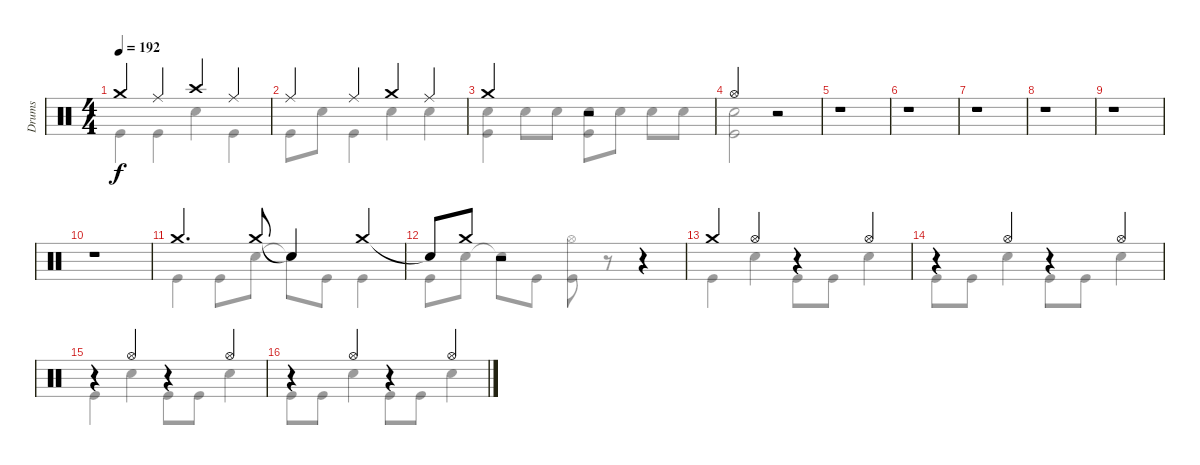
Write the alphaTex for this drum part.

\track ("Drums" "Drums") {instrument percussion}
\staff {score}
\articulation defaults
\voice
\ts (4 4)
\tempo 192
\clef neutral
\ks c "Crash medium (hit)".4{dy f} "Ride (middle)".4 "Crash high (hit)".4 "Ride (middle)".4
|
"Ride (middle)".4 "Ride (middle)".4 "Crash medium (hit)".4 "Ride (middle)".4 |
"Crash medium (hit)".2 r.2 |
"Hi-Hat (open)".2 r.2 |
r.1 |
r.1 |
r.1 |
r.1 |
r.1 |
r.1 |
"Crash medium (hit)".4{d} "Crash medium (hit)".8 "Snare (hit)"{t}.4 "Crash medium (hit)".4 |
"Snare (hit)"{t}.8 "Crash medium (hit)".8 r.2 r.4 |
"Crash medium (hit)".4 "Hi-Hat (open)".4 r.4 "Hi-Hat (open)".4 |
r.4 "Hi-Hat (open)".4 r.4 "Hi-Hat (open)".4 |
r.4 "Hi-Hat (open)".4 r.4 "Hi-Hat (open)".4 |
r.4 "Hi-Hat (open)".4 r.4 "Hi-Hat (open)".4
\voice
\clef neutral
\ottava regular
\simile none
\ks c "Kick (hit)".4{dy f} "Kick (hit)".4 "Snare (hit) 2".4 "Kick (hit)".4
|
"Kick (hit)".8 "Snare (hit) 2".8 "Kick (hit)".4 "Snare (hit) 2".4 "Snare (hit) 2".4 |
("Snare (hit) 2" "Kick (hit)").4 "Snare (hit) 2".8 "Snare (hit) 2".8 ("Snare (hit) 2" "Kick (hit)").8 "Snare (hit) 2".8 "Snare (hit) 2".8 "Snare (hit) 2".8 |
("Snare (hit) 2" "Kick (hit)").2 r.2 |
|
|
|
|
|
|
"Kick (hit)".4 "Kick (hit)".8 "Snare (hit) 2".8 "Snare (hit)"{t}.8 "Kick (hit)".8 "Kick (hit)".4 |
"Kick (hit)".8 "Snare (hit) 2".8 "Snare (hit)"{t}.8 "Kick (hit)".8 ("Hi-Hat (open)" "Kick (hit)").8 r.8 r.4 |
"Kick (hit)".4 "Snare (hit) 2".4 "Kick (hit)".8 "Kick (hit)".8 "Snare (hit) 2".4 |
"Kick (hit)".8 "Kick (hit)".8 "Snare (hit) 2".4 "Kick (hit)".8 "Kick (hit)".8 "Snare (hit) 2".4 |
"Kick (hit)".4 "Snare (hit) 2".4 "Kick (hit)".8 "Kick (hit)".8 "Snare (hit) 2".4 |
"Kick (hit)".8 "Kick (hit)".8 "Snare (hit) 2".4 "Kick (hit)".8 "Kick (hit)".8 "Snare (hit) 2".4
